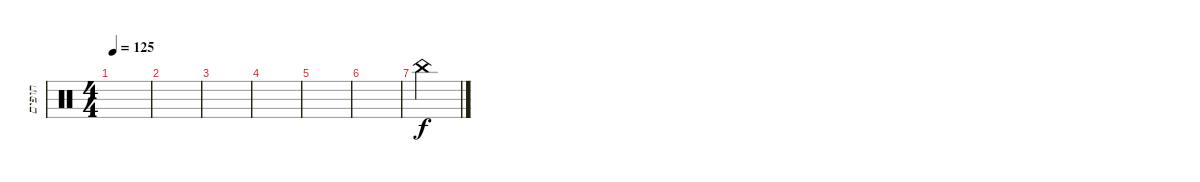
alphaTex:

\track ("תופים" "תופים") {instrument percussion}
\staff {score}
\articulation defaults
\ts (4 4)
\tempo 125
\clef neutral
\ks c
|
|
|
|
|
|
"China (hit)".4
